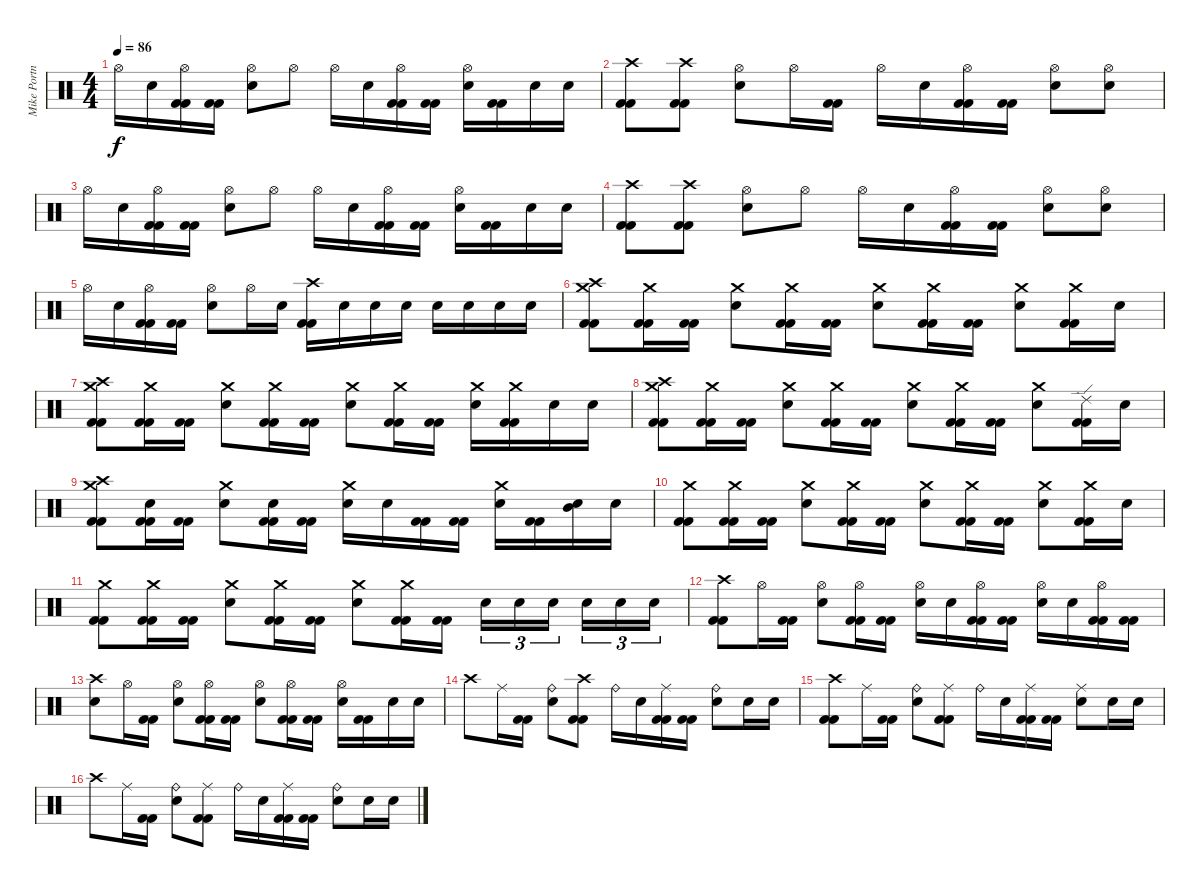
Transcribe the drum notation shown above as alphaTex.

\track ("Mike Portnoy - Drum" "Mike Portn") {instrument percussion}
\staff {score}
\articulation defaults
\ts (4 4)
\tempo 86
\clef neutral
\ks c "Hi-Hat (open)".16{dy f} "Snare (hit) 2".16
("Hi-Hat (open)" "Kick (hit) 2" "Kick (hit) 2").16 ("Kick (hit) 2" "Kick (hit) 2").16 ("Hi-Hat (open)" "Snare (hit) 2").8 "Hi-Hat (open)".8 "Hi-Hat (open)".16 "Snare (hit) 2".16 ("Hi-Hat (open)" "Kick (hit) 2" "Kick (hit) 2").16 ("Kick (hit) 2" "Kick (hit) 2").16 ("Hi-Hat (open)" "Snare (hit) 2").16 ("Kick (hit) 2" "Kick (hit) 2").16 "Snare (hit) 2".16 "Snare (hit) 2".16 |
("Crash high (hit)" "Kick (hit) 2" "Kick (hit) 2").8 ("Crash high (hit)" "Kick (hit) 2" "Kick (hit) 2").8 ("Hi-Hat (open)" "Snare (hit) 2").8 "Hi-Hat (open)".16 ("Kick (hit) 2" "Kick (hit) 2").16 "Hi-Hat (open)".16 "Snare (hit) 2".16 ("Hi-Hat (open)" "Kick (hit) 2" "Kick (hit) 2").16 ("Kick (hit) 2" "Kick (hit) 2").16 ("Hi-Hat (open)" "Snare (hit) 2").8 ("Hi-Hat (open)" "Snare (hit) 2").8 |
"Hi-Hat (open)".16 "Snare (hit) 2".16 ("Hi-Hat (open)" "Kick (hit) 2" "Kick (hit) 2").16 ("Kick (hit) 2" "Kick (hit) 2").16 ("Hi-Hat (open)" "Snare (hit) 2").8 "Hi-Hat (open)".8 "Hi-Hat (open)".16 "Snare (hit) 2".16 ("Hi-Hat (open)" "Kick (hit) 2" "Kick (hit) 2").16 ("Kick (hit) 2" "Kick (hit) 2").16 ("Hi-Hat (open)" "Snare (hit) 2").16 ("Kick (hit) 2" "Kick (hit) 2").16 "Snare (hit) 2".16 "Snare (hit) 2".16 |
("Crash high (hit)" "Kick (hit) 2" "Kick (hit) 2").8 ("Crash high (hit)" "Kick (hit) 2" "Kick (hit) 2").8 ("Hi-Hat (open)" "Snare (hit) 2").8 "Hi-Hat (open)".8 "Hi-Hat (open)".16 "Snare (hit) 2".16 ("Hi-Hat (open)" "Kick (hit) 2" "Kick (hit) 2").16 ("Kick (hit) 2" "Kick (hit) 2").16 ("Hi-Hat (open)" "Snare (hit) 2").8 ("Hi-Hat (open)" "Snare (hit) 2").8 |
"Hi-Hat (open)".16 "Snare (hit) 2".16 ("Hi-Hat (open)" "Kick (hit) 2" "Kick (hit) 2").16 ("Kick (hit) 2" "Kick (hit) 2").16 ("Hi-Hat (open)" "Snare (hit) 2").8 "Hi-Hat (open)".16 "Snare (hit) 2".16 ("Crash high (hit)" "Kick (hit) 2" "Kick (hit) 2").16 "Snare (hit) 2".16 "Snare (hit) 2".16 "Snare (hit) 2".16 "Snare (hit) 2".16 "Snare (hit) 2".16 "Snare (hit) 2".16 "Snare (hit) 2".16 |
("Crash medium (hit)" "Crash high (hit)" "Kick (hit) 2" "Kick (hit) 2").8 ("Crash medium (hit)" "Kick (hit) 2" "Kick (hit) 2").16 ("Kick (hit) 2" "Kick (hit) 2").16 ("Crash medium (hit)" "Snare (hit) 2").8 ("Crash medium (hit)" "Kick (hit) 2" "Kick (hit) 2").16 ("Kick (hit) 2" "Kick (hit) 2").16 ("Crash medium (hit)" "Snare (hit) 2").8 ("Crash medium (hit)" "Kick (hit) 2" "Kick (hit) 2").16 ("Kick (hit) 2" "Kick (hit) 2").16 ("Crash medium (hit)" "Snare (hit) 2").8 ("Crash medium (hit)" "Kick (hit) 2" "Kick (hit) 2").16 "Snare (hit) 2".16 |
("Crash medium (hit)" "Crash high (hit)" "Kick (hit) 2" "Kick (hit) 2").8 ("Crash medium (hit)" "Kick (hit) 2" "Kick (hit) 2").16 ("Kick (hit) 2" "Kick (hit) 2").16 ("Crash medium (hit)" "Snare (hit) 2").8 ("Crash medium (hit)" "Kick (hit) 2" "Kick (hit) 2").16 ("Kick (hit) 2" "Kick (hit) 2").16 ("Crash medium (hit)" "Snare (hit) 2").8 ("Crash medium (hit)" "Kick (hit) 2" "Kick (hit) 2").16 ("Kick (hit) 2" "Kick (hit) 2").16 ("Crash medium (hit)" "Snare (hit) 2").16 ("Crash medium (hit)" "Kick (hit) 2" "Kick (hit) 2").16 "Snare (hit) 2".16 "Snare (hit) 2".16 |
("Crash medium (hit)" "Crash high (hit)" "Kick (hit) 2" "Kick (hit) 2").8 ("Crash medium (hit)" "Kick (hit) 2" "Kick (hit) 2").16 ("Kick (hit) 2" "Kick (hit) 2").16 ("Crash medium (hit)" "Snare (hit) 2").8 ("Crash medium (hit)" "Kick (hit) 2" "Kick (hit) 2").16 ("Kick (hit) 2" "Kick (hit) 2").16 ("Crash medium (hit)" "Snare (hit) 2").8 ("Crash medium (hit)" "Kick (hit) 2" "Kick (hit) 2").16 ("Kick (hit) 2" "Kick (hit) 2").16 ("Crash medium (hit)" "Snare (hit) 2").8 ("Ride (edge) 2" "Kick (hit) 2" "Kick (hit) 2").16 "Snare (hit) 2".16 |
("Crash medium (hit)" "Crash high (hit)" "Kick (hit) 2" "Kick (hit) 2").8 ("Snare (hit) 2" "Kick (hit) 2" "Kick (hit) 2").16 ("Kick (hit) 2" "Kick (hit) 2").16 ("Crash medium (hit)" "Snare (hit) 2").8 ("Snare (hit) 2" "Kick (hit) 2" "Kick (hit) 2").16 ("Kick (hit) 2" "Kick (hit) 2").16 ("Crash medium (hit)" "Snare (hit) 2").16 "Snare (hit) 2".16 ("Kick (hit) 2" "Kick (hit) 2").16 ("Kick (hit) 2" "Kick (hit) 2").16 ("Crash medium (hit)" "Snare (hit) 2").16 ("Kick (hit) 2" "Kick (hit) 2").16 ("Snare (hit) 2" "Mid Tom (hit)").16 "Snare (hit) 2".16 |
("Crash medium (hit)" "Kick (hit) 2" "Kick (hit) 2").8 ("Crash medium (hit)" "Kick (hit) 2" "Kick (hit) 2").16 ("Kick (hit) 2" "Kick (hit) 2").16 ("Crash medium (hit)" "Snare (hit) 2").8 ("Crash medium (hit)" "Kick (hit) 2" "Kick (hit) 2").16 ("Kick (hit) 2" "Kick (hit) 2").16 ("Crash medium (hit)" "Snare (hit) 2").8 ("Crash medium (hit)" "Kick (hit) 2" "Kick (hit) 2").16 ("Kick (hit) 2" "Kick (hit) 2").16 ("Crash medium (hit)" "Snare (hit) 2").8 ("Crash medium (hit)" "Kick (hit) 2" "Kick (hit) 2").16 "Snare (hit) 2".16 |
("Crash medium (hit)" "Kick (hit) 2" "Kick (hit) 2").8 ("Crash medium (hit)" "Kick (hit) 2" "Kick (hit) 2").16 ("Kick (hit) 2" "Kick (hit) 2").16 ("Crash medium (hit)" "Snare (hit) 2").8 ("Crash medium (hit)" "Kick (hit) 2" "Kick (hit) 2").16 ("Kick (hit) 2" "Kick (hit) 2").16 ("Crash medium (hit)" "Snare (hit) 2").8 ("Crash medium (hit)" "Kick (hit) 2" "Kick (hit) 2").16 ("Kick (hit) 2" "Kick (hit) 2").16 "Snare (hit) 2".16{tu (3 2)} "Snare (hit) 2".16{tu (3 2)} "Snare (hit) 2".16{tu (3 2)} "Snare (hit) 2".16{tu (3 2)} "Snare (hit) 2".16{tu (3 2)} "Snare (hit) 2".16{tu (3 2)} |
("Crash high (hit)" "Kick (hit) 2" "Kick (hit) 2").8 "Hi-Hat (open)".16 ("Kick (hit) 2" "Kick (hit) 2").16 ("Hi-Hat (open)" "Snare (hit) 2").8 ("Hi-Hat (open)" "Kick (hit) 2" "Kick (hit) 2").16 ("Kick (hit) 2" "Kick (hit) 2").16 ("Hi-Hat (open)" "Snare (hit) 2").16 "Snare (hit) 2".16 ("Hi-Hat (open)" "Kick (hit) 2" "Kick (hit) 2").16 ("Kick (hit) 2" "Kick (hit) 2").16 ("Hi-Hat (open)" "Snare (hit) 2").16 "Snare (hit) 2".16 ("Hi-Hat (open)" "Kick (hit) 2" "Kick (hit) 2").16 ("Kick (hit) 2" "Kick (hit) 2").16 |
("Crash high (hit)" "Snare (hit) 2").8 "Hi-Hat (open)".16 ("Kick (hit) 2" "Kick (hit) 2").16 ("Hi-Hat (open)" "Snare (hit) 2").8 ("Hi-Hat (open)" "Kick (hit) 2" "Kick (hit) 2").16 ("Kick (hit) 2" "Kick (hit) 2").16 ("Hi-Hat (open)" "Snare (hit) 2").8 ("Hi-Hat (open)" "Kick (hit) 2" "Kick (hit) 2").16 ("Kick (hit) 2" "Kick (hit) 2").16 ("Hi-Hat (open)" "Snare (hit) 2").16 ("Kick (hit) 2" "Kick (hit) 2").16 "Snare (hit) 2".16 "Snare (hit) 2".16 |
"Crash high (hit)".8 "Ride (middle)".16 ("Kick (hit) 2" "Kick (hit) 2").16 ("Ride (bell)" "Snare (hit) 2").8 ("Crash high (hit)" "Kick (hit) 2" "Kick (hit) 2").8 "Ride (bell)".16 "Snare (hit) 2".16 ("Ride (middle)" "Kick (hit) 2" "Kick (hit) 2").16 ("Kick (hit) 2" "Kick (hit) 2").16 ("Ride (bell)" "Snare (hit) 2").8 "Snare (hit) 2".16 "Snare (hit) 2".16 |
("Crash high (hit)" "Kick (hit) 2" "Kick (hit) 2").8 "Ride (middle)".16 ("Kick (hit) 2" "Kick (hit) 2").16 ("Ride (bell)" "Snare (hit) 2").8 ("Ride (middle)" "Kick (hit) 2" "Kick (hit) 2").8 "Ride (bell)".16 "Snare (hit) 2".16 ("Ride (middle)" "Kick (hit) 2" "Kick (hit) 2").16 ("Kick (hit) 2" "Kick (hit) 2").16 ("Ride (middle)" "Snare (hit) 2").8 "Snare (hit) 2".16 "Snare (hit) 2".16 |
"Crash high (hit)".8 "Ride (middle)".16 ("Kick (hit) 2" "Kick (hit) 2").16 ("Ride (bell)" "Snare (hit) 2").8 ("Ride (middle)" "Kick (hit) 2" "Kick (hit) 2").8 "Ride (bell)".16 "Snare (hit) 2".16 ("Ride (middle)" "Kick (hit) 2" "Kick (hit) 2").16 ("Kick (hit) 2" "Kick (hit) 2").16 ("Ride (bell)" "Snare (hit) 2").8 "Snare (hit) 2".16 "Snare (hit) 2".16
